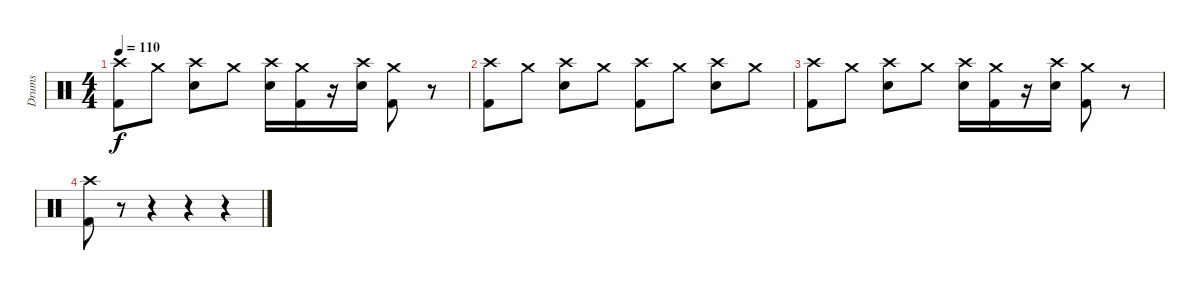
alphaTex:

\track ("Drums" "Drums") {instrument percussion}
\staff {score}
\articulation defaults
\ts (4 4)
\tempo 110
\clef neutral
\ks c
("Crash high (hit)" "Kick (hit) 2").8{dy f} "Crash medium (hit)".8 ("Crash high (hit)" "Electric Snare (hit)").8 "Crash medium (hit)".8 ("Crash high (hit)" "Electric Snare (hit)").16 ("Crash medium (hit)" "Kick (hit) 2").16 r.16 ("Crash high (hit)" "Electric Snare (hit)").16 ("Crash medium (hit)" "Kick (hit) 2").8 r.8 |
("Crash high (hit)" "Kick (hit) 2").8 "Crash medium (hit)".8 ("Crash high (hit)" "Electric Snare (hit)").8 "Crash medium (hit)".8 ("Crash high (hit)" "Kick (hit) 2").8 "Crash medium (hit)".8 ("Crash high (hit)" "Electric Snare (hit)").8 "Crash medium (hit)".8 |
("Crash high (hit)" "Kick (hit) 2").8 "Crash medium (hit)".8 ("Crash high (hit)" "Electric Snare (hit)").8 "Crash medium (hit)".8 ("Crash high (hit)" "Electric Snare (hit)").16 ("Crash medium (hit)" "Kick (hit) 2").16 r.16 ("Crash high (hit)" "Electric Snare (hit)").16 ("Crash medium (hit)" "Kick (hit) 2").8 r.8 |
("Crash high (hit)" "Kick (hit) 2").8 r.8 r.4 r.4 r.4
